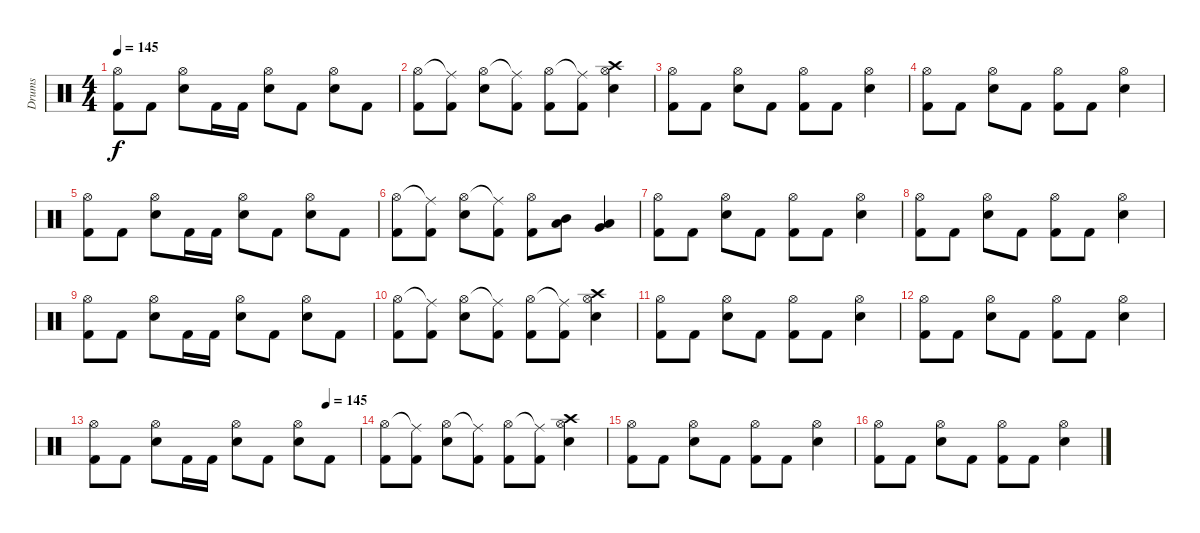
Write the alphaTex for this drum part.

\track ("Drums" "Drums") {instrument percussion}
\staff {score}
\articulation defaults
\ts (4 4)
\tempo 145
\clef neutral
\ks c
("Kick (hit) 2" "Hi-Hat (open)").8{dy f} "Kick (hit) 2".8 ("Electric Snare (hit)" "Hi-Hat (open)").8 "Kick (hit) 2".16 "Kick (hit) 2".16 ("Electric Snare (hit)" "Hi-Hat (open)").8 "Kick (hit) 2".8 ("Electric Snare (hit)" "Hi-Hat (open)").8 "Kick (hit) 2".8 |
("Kick (hit) 2" "Hi-Hat (open)").8 ("Kick (hit) 2" "Ride (middle)"{t}).8 ("Electric Snare (hit)" "Hi-Hat (open)").8 ("Kick (hit) 2" "Ride (middle)"{t}).8 ("Kick (hit) 2" "Hi-Hat (open)").8 ("Kick (hit) 2" "Ride (middle)"{t}).8 ("Electric Snare (hit)" "Hi-Hat (open)" "Crash high (hit)").4 |
("Kick (hit) 2" "Hi-Hat (open)").8 "Kick (hit) 2".8 ("Electric Snare (hit)" "Hi-Hat (open)").8 "Kick (hit) 2".8 ("Kick (hit) 2" "Hi-Hat (open)").8 "Kick (hit) 2".8 ("Electric Snare (hit)" "Hi-Hat (open)").4 |
("Kick (hit) 2" "Hi-Hat (open)").8 "Kick (hit) 2".8 ("Electric Snare (hit)" "Hi-Hat (open)").8 "Kick (hit) 2".8 ("Kick (hit) 2" "Hi-Hat (open)").8 "Kick (hit) 2".8 ("Electric Snare (hit)" "Hi-Hat (open)").4 |
("Kick (hit) 2" "Hi-Hat (open)").8 "Kick (hit) 2".8 ("Electric Snare (hit)" "Hi-Hat (open)").8 "Kick (hit) 2".16 "Kick (hit) 2".16 ("Electric Snare (hit)" "Hi-Hat (open)").8 "Kick (hit) 2".8 ("Electric Snare (hit)" "Hi-Hat (open)").8 "Kick (hit) 2".8 |
("Kick (hit) 2" "Hi-Hat (open)").8 ("Kick (hit) 2" "Ride (middle)"{t}).8 ("Electric Snare (hit)" "Hi-Hat (open)").8 ("Kick (hit) 2" "Ride (middle)"{t}).8 ("Kick (hit) 2" "Hi-Hat (open)").8 ("Low Tom (hit)" "Mid Tom (hit)").8 ("Low Tom (hit)" "Very Low Tom (hit)").4 |
("Kick (hit) 2" "Hi-Hat (open)").8 "Kick (hit) 2".8 ("Electric Snare (hit)" "Hi-Hat (open)").8 "Kick (hit) 2".8 ("Kick (hit) 2" "Hi-Hat (open)").8 "Kick (hit) 2".8 ("Electric Snare (hit)" "Hi-Hat (open)").4 |
("Kick (hit) 2" "Hi-Hat (open)").8 "Kick (hit) 2".8 ("Electric Snare (hit)" "Hi-Hat (open)").8 "Kick (hit) 2".8 ("Kick (hit) 2" "Hi-Hat (open)").8 "Kick (hit) 2".8 ("Electric Snare (hit)" "Hi-Hat (open)").4 |
("Kick (hit) 2" "Hi-Hat (open)").8 "Kick (hit) 2".8 ("Electric Snare (hit)" "Hi-Hat (open)").8 "Kick (hit) 2".16 "Kick (hit) 2".16 ("Electric Snare (hit)" "Hi-Hat (open)").8 "Kick (hit) 2".8 ("Electric Snare (hit)" "Hi-Hat (open)").8 "Kick (hit) 2".8 |
("Kick (hit) 2" "Hi-Hat (open)").8 ("Kick (hit) 2" "Ride (middle)"{t}).8 ("Electric Snare (hit)" "Hi-Hat (open)").8 ("Kick (hit) 2" "Ride (middle)"{t}).8 ("Kick (hit) 2" "Hi-Hat (open)").8 ("Kick (hit) 2" "Ride (middle)"{t}).8 ("Electric Snare (hit)" "Hi-Hat (open)" "Crash high (hit)").4 |
("Kick (hit) 2" "Hi-Hat (open)").8 "Kick (hit) 2".8 ("Electric Snare (hit)" "Hi-Hat (open)").8 "Kick (hit) 2".8 ("Kick (hit) 2" "Hi-Hat (open)").8 "Kick (hit) 2".8 ("Electric Snare (hit)" "Hi-Hat (open)").4 |
("Kick (hit) 2" "Hi-Hat (open)").8 "Kick (hit) 2".8 ("Electric Snare (hit)" "Hi-Hat (open)").8 "Kick (hit) 2".8 ("Kick (hit) 2" "Hi-Hat (open)").8 "Kick (hit) 2".8 ("Electric Snare (hit)" "Hi-Hat (open)").4 |
\tempo (145 0.875)
("Kick (hit) 2" "Hi-Hat (open)").8 "Kick (hit) 2".8 ("Electric Snare (hit)" "Hi-Hat (open)").8 "Kick (hit) 2".16 "Kick (hit) 2".16 ("Electric Snare (hit)" "Hi-Hat (open)").8 "Kick (hit) 2".8 ("Electric Snare (hit)" "Hi-Hat (open)").8 "Kick (hit) 2".8 |
("Kick (hit) 2" "Hi-Hat (open)").8 ("Kick (hit) 2" "Ride (middle)"{t}).8 ("Electric Snare (hit)" "Hi-Hat (open)").8 ("Kick (hit) 2" "Ride (middle)"{t}).8 ("Kick (hit) 2" "Hi-Hat (open)").8 ("Kick (hit) 2" "Ride (middle)"{t}).8 ("Electric Snare (hit)" "Hi-Hat (open)" "Crash high (hit)").4 |
("Kick (hit) 2" "Hi-Hat (open)").8 "Kick (hit) 2".8 ("Electric Snare (hit)" "Hi-Hat (open)").8 "Kick (hit) 2".8 ("Kick (hit) 2" "Hi-Hat (open)").8 "Kick (hit) 2".8 ("Electric Snare (hit)" "Hi-Hat (open)").4 |
("Kick (hit) 2" "Hi-Hat (open)").8 "Kick (hit) 2".8 ("Electric Snare (hit)" "Hi-Hat (open)").8 "Kick (hit) 2".8 ("Kick (hit) 2" "Hi-Hat (open)").8 "Kick (hit) 2".8 ("Electric Snare (hit)" "Hi-Hat (open)").4
